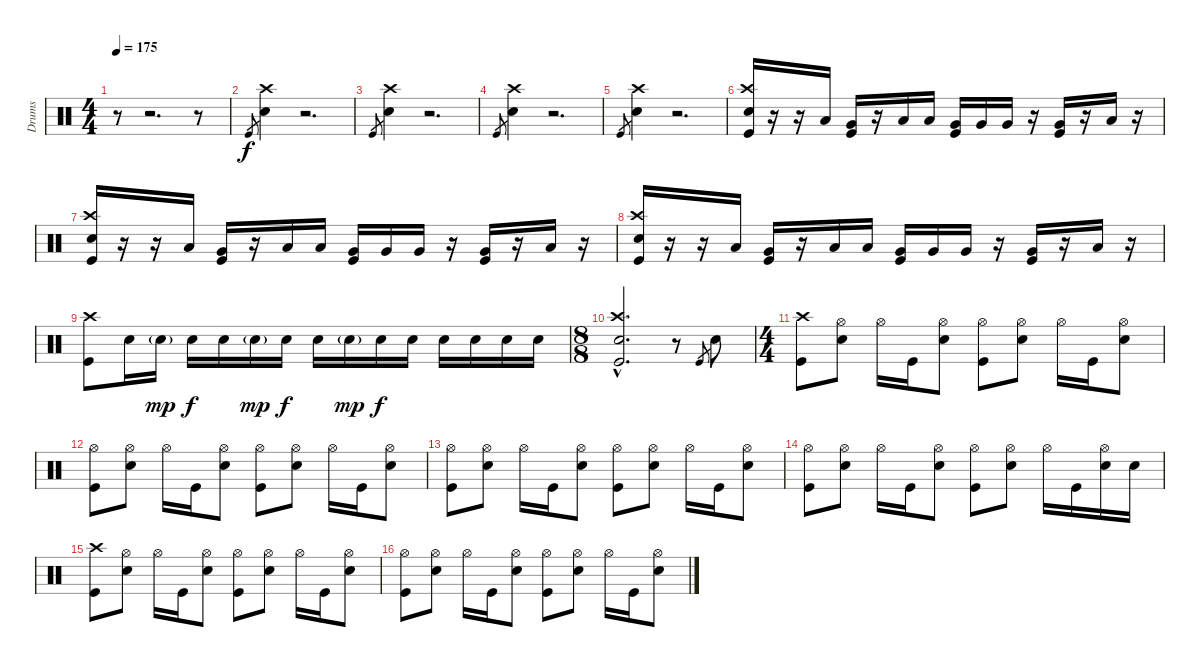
\track ("Drums" "Drums") {instrument percussion}
\staff {score}
\articulation defaults
\ts (4 4)
\tempo 175
\clef neutral
\ks c
r.8{dy f} r.2{d} r.8 |
"Kick (hit)".8{gr} ("Crash high (hit)" "Snare (hit) 2").4 r.2{d} |
"Kick (hit)".8{gr} ("Crash high (hit)" "Snare (hit) 2").4 r.2{d} |
"Kick (hit)".8{gr} ("Crash high (hit)" "Snare (hit) 2").4 r.2{d} |
"Kick (hit)".8{gr} ("Crash high (hit)" "Snare (hit) 2").4 r.2{d} |
("Crash high (hit)" "Snare (hit) 2" "Kick (hit)").16 r.16 r.16 "Low Floor Tom (hit)".16 ("Very Low Tom (hit)" "Kick (hit)").16 r.16 "Low Floor Tom (hit)".16 "Low Floor Tom (hit)".16 ("Very Low Tom (hit)" "Kick (hit)").16 "Very Low Tom (hit)".16 "Very Low Tom (hit)".16 r.16 ("Very Low Tom (hit)" "Kick (hit)").16 r.16 "Low Floor Tom (hit)".16 r.16 |
("Crash high (hit)" "Snare (hit) 2" "Kick (hit)").16 r.16 r.16 "Low Floor Tom (hit)".16 ("Very Low Tom (hit)" "Kick (hit)").16 r.16 "Low Floor Tom (hit)".16 "Low Floor Tom (hit)".16 ("Very Low Tom (hit)" "Kick (hit)").16 "Very Low Tom (hit)".16 "Very Low Tom (hit)".16 r.16 ("Very Low Tom (hit)" "Kick (hit)").16 r.16 "Low Floor Tom (hit)".16 r.16 |
("Crash high (hit)" "Snare (hit) 2" "Kick (hit)").16 r.16 r.16 "Low Floor Tom (hit)".16 ("Very Low Tom (hit)" "Kick (hit)").16 r.16 "Low Floor Tom (hit)".16 "Low Floor Tom (hit)".16 ("Very Low Tom (hit)" "Kick (hit)").16 "Very Low Tom (hit)".16 "Very Low Tom (hit)".16 r.16 ("Very Low Tom (hit)" "Kick (hit)").16 r.16 "Low Floor Tom (hit)".16 r.16 |
("Crash high (hit)" "Kick (hit)").8 "Snare (hit) 2".16 "Snare (hit) 2"{g}.16{dy mp} "Snare (hit) 2".16{dy f} "Snare (hit) 2".16 "Snare (hit) 2"{g}.16{dy mp} "Snare (hit) 2".16{dy f} "Snare (hit) 2".16 "Snare (hit) 2"{g}.16{dy mp} "Snare (hit) 2".16{dy f} "Snare (hit) 2".16 "Snare (hit) 2".16 "Snare (hit) 2".16 "Snare (hit) 2".16 "Snare (hit) 2".16 |
\ts (8 8)
("Crash high (hit)"{hac} "Snare (hit) 2"{hac} "Kick (hit)"{hac}).2{d} r.8 "Kick (hit)".8{gr} "Snare (hit) 2".8 |
\ts (4 4)
("Crash high (hit)" "Kick (hit)").8 ("Hi-Hat (open)" "Electric Snare (hit)").8 "Hi-Hat (open)".16 "Kick (hit)".16 ("Hi-Hat (open)" "Electric Snare (hit)").8 ("Hi-Hat (open)" "Kick (hit)").8 ("Hi-Hat (open)" "Electric Snare (hit)").8 "Hi-Hat (open)".16 "Kick (hit)".16 ("Hi-Hat (open)" "Electric Snare (hit)").8 |
("Hi-Hat (open)" "Kick (hit)").8 ("Hi-Hat (open)" "Electric Snare (hit)").8 "Hi-Hat (open)".16 "Kick (hit)".16 ("Hi-Hat (open)" "Electric Snare (hit)").8 ("Hi-Hat (open)" "Kick (hit)").8 ("Hi-Hat (open)" "Electric Snare (hit)").8 "Hi-Hat (open)".16 "Kick (hit)".16 ("Hi-Hat (open)" "Electric Snare (hit)").8 |
("Hi-Hat (open)" "Kick (hit)").8 ("Hi-Hat (open)" "Electric Snare (hit)").8 "Hi-Hat (open)".16 "Kick (hit)".16 ("Hi-Hat (open)" "Electric Snare (hit)").8 ("Hi-Hat (open)" "Kick (hit)").8 ("Hi-Hat (open)" "Electric Snare (hit)").8 "Hi-Hat (open)".16 "Kick (hit)".16 ("Hi-Hat (open)" "Electric Snare (hit)").8 |
("Hi-Hat (open)" "Kick (hit)").8 ("Hi-Hat (open)" "Electric Snare (hit)").8 "Hi-Hat (open)".16 "Kick (hit)".16 ("Hi-Hat (open)" "Electric Snare (hit)").8 ("Hi-Hat (open)" "Kick (hit)").8 ("Hi-Hat (open)" "Electric Snare (hit)").8 "Hi-Hat (open)".16 "Kick (hit)".16 ("Hi-Hat (open)" "Electric Snare (hit)").16 "Electric Snare (hit)".16 |
("Crash high (hit)" "Kick (hit)").8 ("Hi-Hat (open)" "Electric Snare (hit)").8 "Hi-Hat (open)".16 "Kick (hit)".16 ("Hi-Hat (open)" "Electric Snare (hit)").8 ("Hi-Hat (open)" "Kick (hit)").8 ("Hi-Hat (open)" "Electric Snare (hit)").8 "Hi-Hat (open)".16 "Kick (hit)".16 ("Hi-Hat (open)" "Electric Snare (hit)").8 |
("Hi-Hat (open)" "Kick (hit)").8 ("Hi-Hat (open)" "Electric Snare (hit)").8 "Hi-Hat (open)".16 "Kick (hit)".16 ("Hi-Hat (open)" "Electric Snare (hit)").8 ("Hi-Hat (open)" "Kick (hit)").8 ("Hi-Hat (open)" "Electric Snare (hit)").8 "Hi-Hat (open)".16 "Kick (hit)".16 ("Hi-Hat (open)" "Electric Snare (hit)").8
